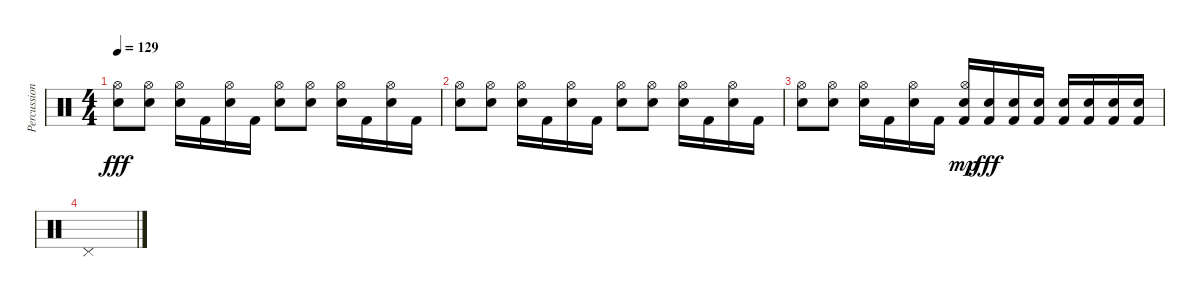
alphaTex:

\track ("Percussions" "Percussion") {instrument percussion}
\staff {score}
\articulation defaults
\ts (4 4)
\tempo 129
\clef neutral
\ks c
("Snare (hit) 2" "Hi-Hat (open)").8{dy fff} ("Snare (hit) 2" "Hi-Hat (open)").8 ("Snare (hit) 2" "Hi-Hat (open)").16 "Kick (hit) 2".16 ("Snare (hit) 2" "Hi-Hat (open)").16 "Kick (hit) 2".16 ("Snare (hit) 2" "Hi-Hat (open)").8 ("Snare (hit) 2" "Hi-Hat (open)").8 ("Snare (hit) 2" "Hi-Hat (open)").16 "Kick (hit) 2".16 ("Snare (hit) 2" "Hi-Hat (open)").16 "Kick (hit) 2".16 |
("Snare (hit) 2" "Hi-Hat (open)").8 ("Snare (hit) 2" "Hi-Hat (open)").8 ("Snare (hit) 2" "Hi-Hat (open)").16 "Kick (hit) 2".16 ("Snare (hit) 2" "Hi-Hat (open)").16 "Kick (hit) 2".16 ("Snare (hit) 2" "Hi-Hat (open)").8 ("Snare (hit) 2" "Hi-Hat (open)").8 ("Snare (hit) 2" "Hi-Hat (open)").16 "Kick (hit) 2".16 ("Snare (hit) 2" "Hi-Hat (open)").16 "Kick (hit) 2".16 |
("Snare (hit) 2" "Hi-Hat (open)").8 ("Snare (hit) 2" "Hi-Hat (open)").8 ("Snare (hit) 2" "Hi-Hat (open)").16 "Kick (hit) 2".16 ("Snare (hit) 2" "Hi-Hat (open)").16 "Kick (hit) 2".16 ("Kick (hit) 2" "Snare (hit) 2" "Hi-Hat (open)").16{dy mp} ("Kick (hit) 2" "Snare (hit) 2").16{dy fff} ("Kick (hit) 2" "Snare (hit) 2").16 ("Kick (hit) 2" "Snare (hit) 2").16 ("Kick (hit) 2" "Snare (hit) 2").16 ("Kick (hit) 2" "Snare (hit) 2").16 ("Kick (hit) 2" "Snare (hit) 2").16 ("Kick (hit) 2" "Snare (hit) 2").16 |
"Pedal Hi-Hat (hit)".1
